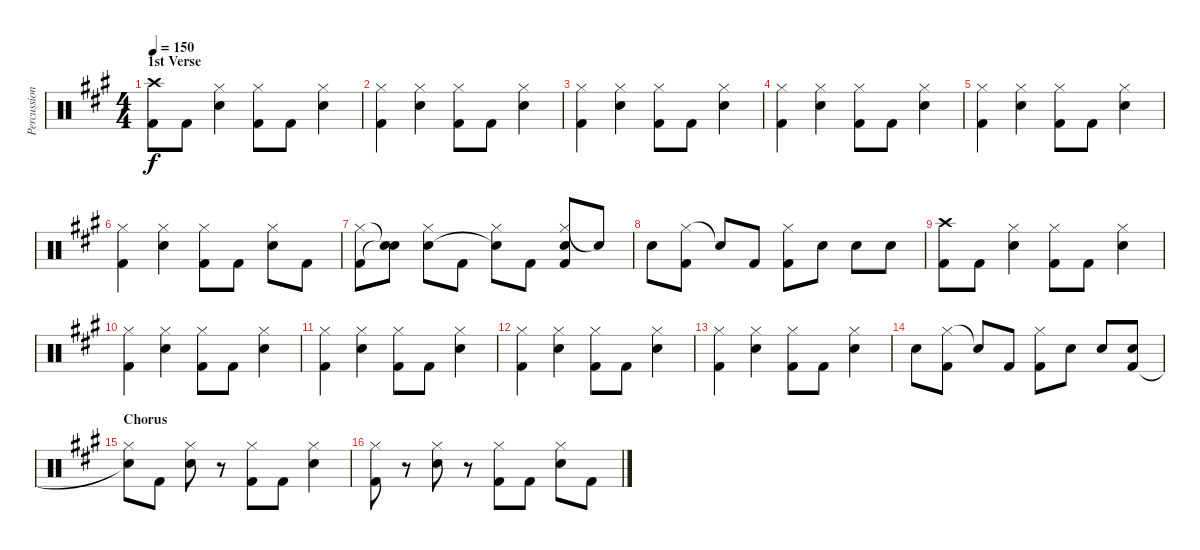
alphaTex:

\track ("Percussion" "Percussion") {instrument percussion}
\staff {score}
\articulation defaults
\ts (4 4)
\section ("" "1st Verse")
\tempo 150
\clef neutral
\ks f#minor
("Crash high (hit)" "Kick (hit) 2").8{dy f} "Kick (hit) 2".8 ("Hi-Hat (closed)" "Snare (hit) 2").4 ("Hi-Hat (closed)" "Kick (hit) 2").8 "Kick (hit) 2".8 ("Hi-Hat (closed)" "Snare (hit) 2").4 |
("Hi-Hat (closed)" "Kick (hit) 2").4 ("Hi-Hat (closed)" "Snare (hit) 2").4 ("Hi-Hat (closed)" "Kick (hit) 2").8 "Kick (hit) 2".8 ("Hi-Hat (closed)" "Snare (hit) 2").4 |
("Hi-Hat (closed)" "Kick (hit) 2").4 ("Hi-Hat (closed)" "Snare (hit) 2").4 ("Hi-Hat (closed)" "Kick (hit) 2").8 "Kick (hit) 2".8 ("Hi-Hat (closed)" "Snare (hit) 2").4 |
("Hi-Hat (closed)" "Kick (hit) 2").4 ("Hi-Hat (closed)" "Snare (hit) 2").4 ("Hi-Hat (closed)" "Kick (hit) 2").8 "Kick (hit) 2".8 ("Hi-Hat (closed)" "Snare (hit) 2").4 |
("Hi-Hat (closed)" "Kick (hit) 2").4 ("Hi-Hat (closed)" "Snare (hit) 2").4 ("Hi-Hat (closed)" "Kick (hit) 2").8 "Kick (hit) 2".8 ("Hi-Hat (closed)" "Snare (hit) 2").4 |
("Hi-Hat (closed)" "Kick (hit) 2").4 ("Hi-Hat (closed)" "Snare (hit) 2").4 ("Hi-Hat (closed)" "Kick (hit) 2").8 "Kick (hit) 2".8 ("Hi-Hat (closed)" "Snare (hit) 2").8 "Kick (hit) 2".8 |
("Hi-Hat (closed)" "Kick (hit) 2").8 ("Snare (hit)"{t} "Snare (hit)"{t}).8 ("Hi-Hat (closed)" "Snare (hit) 2").8 "Kick (hit) 2".8 ("Hi-Hat (closed)" "Snare (hit)"{t}).8 "Kick (hit) 2".8 ("Hi-Hat (closed)" "Snare (hit) 2" "Kick (hit) 2").8 "Snare (hit)"{t}.8 |
"Snare (hit) 2".8 ("Hi-Hat (closed)" "Kick (hit) 2").8 "Snare (hit)"{t}.8 "Kick (hit) 2".8 ("Hi-Hat (closed)" "Kick (hit) 2").8 "Snare (hit) 2".8 "Snare (hit) 2".8 "Snare (hit) 2".8 |
("Crash high (hit)" "Kick (hit) 2").8 "Kick (hit) 2".8 ("Hi-Hat (closed)" "Snare (hit) 2").4 ("Hi-Hat (closed)" "Kick (hit) 2").8 "Kick (hit) 2".8 ("Hi-Hat (closed)" "Snare (hit) 2").4 |
("Hi-Hat (closed)" "Kick (hit) 2").4 ("Hi-Hat (closed)" "Snare (hit) 2").4 ("Hi-Hat (closed)" "Kick (hit) 2").8 "Kick (hit) 2".8 ("Hi-Hat (closed)" "Snare (hit) 2").4 |
("Hi-Hat (closed)" "Kick (hit) 2").4 ("Hi-Hat (closed)" "Snare (hit) 2").4 ("Hi-Hat (closed)" "Kick (hit) 2").8 "Kick (hit) 2".8 ("Hi-Hat (closed)" "Snare (hit) 2").4 |
("Hi-Hat (closed)" "Kick (hit) 2").4 ("Hi-Hat (closed)" "Snare (hit) 2").4 ("Hi-Hat (closed)" "Kick (hit) 2").8 "Kick (hit) 2".8 ("Hi-Hat (closed)" "Snare (hit) 2").4 |
("Hi-Hat (closed)" "Kick (hit) 2").4 ("Hi-Hat (closed)" "Snare (hit) 2").4 ("Hi-Hat (closed)" "Kick (hit) 2").8 "Kick (hit) 2".8 ("Hi-Hat (closed)" "Snare (hit) 2").4 |
"Snare (hit) 2".8 ("Hi-Hat (closed)" "Kick (hit) 2").8 "Snare (hit)"{t}.8 "Kick (hit) 2".8 ("Hi-Hat (closed)" "Kick (hit) 2").8 "Snare (hit) 2".8 "Snare (hit) 2".8 ("Snare (hit) 2" "Kick (hit) 2").8 |
\section ("" "Chorus")
("Hi-Hat (closed)" "Snare (hit)"{t}).8 "Kick (hit) 2".8 ("Hi-Hat (closed)" "Snare (hit) 2").8 r.8 ("Hi-Hat (closed)" "Kick (hit) 2").8 "Kick (hit) 2".8 ("Hi-Hat (closed)" "Snare (hit) 2").4 |
("Hi-Hat (closed)" "Kick (hit) 2").8 r.8 ("Hi-Hat (closed)" "Snare (hit) 2").8 r.8 ("Hi-Hat (closed)" "Kick (hit) 2").8 "Kick (hit) 2".8 ("Hi-Hat (closed)" "Snare (hit) 2").8 "Kick (hit) 2".8
